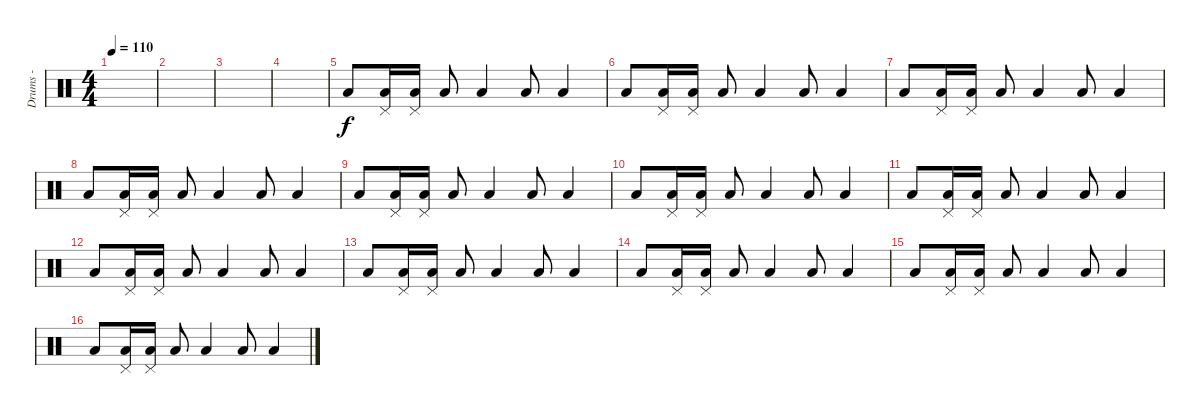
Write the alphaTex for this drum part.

\track ("Drums - " "Drums - ") {instrument percussion}
\staff {score}
\articulation defaults
\ts (4 4)
\tempo 110
\clef neutral
\ks c
|
|
|
|
"Low Tom (hit)".8 ("Pedal Hi-Hat (hit)" "Low Tom (hit)").16 ("Pedal Hi-Hat (hit)" "Low Tom (hit)").16 "Low Tom (hit)".8 "Low Tom (hit)".4 "Low Tom (hit)".8 "Low Tom (hit)".4 |
"Low Tom (hit)".8 ("Pedal Hi-Hat (hit)" "Low Tom (hit)").16 ("Pedal Hi-Hat (hit)" "Low Tom (hit)").16 "Low Tom (hit)".8 "Low Tom (hit)".4 "Low Tom (hit)".8 "Low Tom (hit)".4 |
"Low Tom (hit)".8 ("Pedal Hi-Hat (hit)" "Low Tom (hit)").16 ("Pedal Hi-Hat (hit)" "Low Tom (hit)").16 "Low Tom (hit)".8 "Low Tom (hit)".4 "Low Tom (hit)".8 "Low Tom (hit)".4 |
"Low Tom (hit)".8 ("Pedal Hi-Hat (hit)" "Low Tom (hit)").16 ("Pedal Hi-Hat (hit)" "Low Tom (hit)").16 "Low Tom (hit)".8 "Low Tom (hit)".4 "Low Tom (hit)".8 "Low Tom (hit)".4 |
"Low Tom (hit)".8 ("Pedal Hi-Hat (hit)" "Low Tom (hit)").16 ("Pedal Hi-Hat (hit)" "Low Tom (hit)").16 "Low Tom (hit)".8 "Low Tom (hit)".4 "Low Tom (hit)".8 "Low Tom (hit)".4 |
"Low Tom (hit)".8 ("Pedal Hi-Hat (hit)" "Low Tom (hit)").16 ("Pedal Hi-Hat (hit)" "Low Tom (hit)").16 "Low Tom (hit)".8 "Low Tom (hit)".4 "Low Tom (hit)".8 "Low Tom (hit)".4 |
"Low Tom (hit)".8 ("Pedal Hi-Hat (hit)" "Low Tom (hit)").16 ("Pedal Hi-Hat (hit)" "Low Tom (hit)").16 "Low Tom (hit)".8 "Low Tom (hit)".4 "Low Tom (hit)".8 "Low Tom (hit)".4 |
"Low Tom (hit)".8 ("Pedal Hi-Hat (hit)" "Low Tom (hit)").16 ("Pedal Hi-Hat (hit)" "Low Tom (hit)").16 "Low Tom (hit)".8 "Low Tom (hit)".4 "Low Tom (hit)".8 "Low Tom (hit)".4 |
"Low Tom (hit)".8 ("Pedal Hi-Hat (hit)" "Low Tom (hit)").16 ("Pedal Hi-Hat (hit)" "Low Tom (hit)").16 "Low Tom (hit)".8 "Low Tom (hit)".4 "Low Tom (hit)".8 "Low Tom (hit)".4 |
"Low Tom (hit)".8 ("Pedal Hi-Hat (hit)" "Low Tom (hit)").16 ("Pedal Hi-Hat (hit)" "Low Tom (hit)").16 "Low Tom (hit)".8 "Low Tom (hit)".4 "Low Tom (hit)".8 "Low Tom (hit)".4 |
"Low Tom (hit)".8 ("Pedal Hi-Hat (hit)" "Low Tom (hit)").16 ("Pedal Hi-Hat (hit)" "Low Tom (hit)").16 "Low Tom (hit)".8 "Low Tom (hit)".4 "Low Tom (hit)".8 "Low Tom (hit)".4 |
"Low Tom (hit)".8 ("Pedal Hi-Hat (hit)" "Low Tom (hit)").16 ("Pedal Hi-Hat (hit)" "Low Tom (hit)").16 "Low Tom (hit)".8 "Low Tom (hit)".4 "Low Tom (hit)".8 "Low Tom (hit)".4
